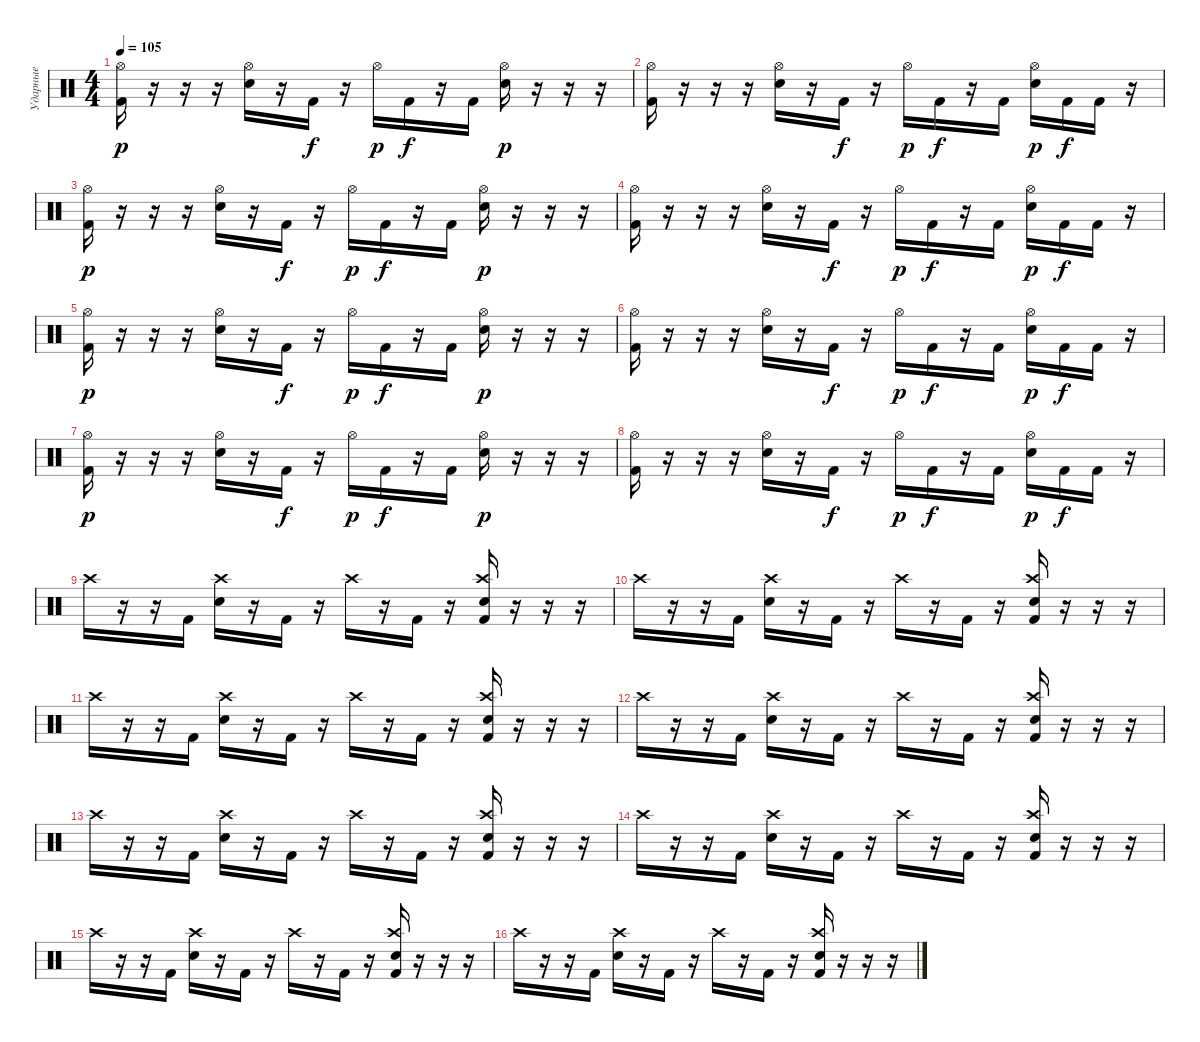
\track ("Ударные" "Ударные") {instrument percussion}
\staff {score}
\articulation defaults
\ts (4 4)
\tempo 105
\clef neutral
\ks c
("Hi-Hat (open)" "Kick (hit) 2").16{dy p} r.16 r.16 r.16 ("Hi-Hat (open)" "Electric Snare (hit)").16 r.16 "Kick (hit) 2".16{dy f} r.16 "Hi-Hat (open)".16{dy p} "Kick (hit) 2".16{dy f} r.16 "Kick (hit) 2".16 ("Hi-Hat (open)" "Electric Snare (hit)").16{dy p} r.16 r.16 r.16 |
("Hi-Hat (open)" "Kick (hit) 2").16 r.16 r.16 r.16 ("Hi-Hat (open)" "Electric Snare (hit)").16 r.16 "Kick (hit) 2".16{dy f} r.16 "Hi-Hat (open)".16{dy p} "Kick (hit) 2".16{dy f} r.16 "Kick (hit) 2".16 ("Hi-Hat (open)" "Electric Snare (hit)").16{dy p} "Kick (hit) 2".16{dy f} "Kick (hit) 2".16 r.16 |
("Hi-Hat (open)" "Kick (hit) 2").16{dy p} r.16 r.16 r.16 ("Hi-Hat (open)" "Electric Snare (hit)").16 r.16 "Kick (hit) 2".16{dy f} r.16 "Hi-Hat (open)".16{dy p} "Kick (hit) 2".16{dy f} r.16 "Kick (hit) 2".16 ("Hi-Hat (open)" "Electric Snare (hit)").16{dy p} r.16 r.16 r.16 |
("Hi-Hat (open)" "Kick (hit) 2").16 r.16 r.16 r.16 ("Hi-Hat (open)" "Electric Snare (hit)").16 r.16 "Kick (hit) 2".16{dy f} r.16 "Hi-Hat (open)".16{dy p} "Kick (hit) 2".16{dy f} r.16 "Kick (hit) 2".16 ("Hi-Hat (open)" "Electric Snare (hit)").16{dy p} "Kick (hit) 2".16{dy f} "Kick (hit) 2".16 r.16 |
("Hi-Hat (open)" "Kick (hit) 2").16{dy p} r.16 r.16 r.16 ("Hi-Hat (open)" "Electric Snare (hit)").16 r.16 "Kick (hit) 2".16{dy f} r.16 "Hi-Hat (open)".16{dy p} "Kick (hit) 2".16{dy f} r.16 "Kick (hit) 2".16 ("Hi-Hat (open)" "Electric Snare (hit)").16{dy p} r.16 r.16 r.16 |
("Hi-Hat (open)" "Kick (hit) 2").16 r.16 r.16 r.16 ("Hi-Hat (open)" "Electric Snare (hit)").16 r.16 "Kick (hit) 2".16{dy f} r.16 "Hi-Hat (open)".16{dy p} "Kick (hit) 2".16{dy f} r.16 "Kick (hit) 2".16 ("Hi-Hat (open)" "Electric Snare (hit)").16{dy p} "Kick (hit) 2".16{dy f} "Kick (hit) 2".16 r.16 |
("Hi-Hat (open)" "Kick (hit) 2").16{dy p} r.16 r.16 r.16 ("Hi-Hat (open)" "Electric Snare (hit)").16 r.16 "Kick (hit) 2".16{dy f} r.16 "Hi-Hat (open)".16{dy p} "Kick (hit) 2".16{dy f} r.16 "Kick (hit) 2".16 ("Hi-Hat (open)" "Electric Snare (hit)").16{dy p} r.16 r.16 r.16 |
("Hi-Hat (open)" "Kick (hit) 2").16 r.16 r.16 r.16 ("Hi-Hat (open)" "Electric Snare (hit)").16 r.16 "Kick (hit) 2".16{dy f} r.16 "Hi-Hat (open)".16{dy p} "Kick (hit) 2".16{dy f} r.16 "Kick (hit) 2".16 ("Hi-Hat (open)" "Electric Snare (hit)").16{dy p} "Kick (hit) 2".16{dy f} "Kick (hit) 2".16 r.16 |
"Crash high (hit)".16 r.16 r.16 "Kick (hit) 2".16 ("Crash high (hit)" "Snare (hit) 2").16 r.16 "Kick (hit) 2".16 r.16 "Crash high (hit)".16 r.16 "Kick (hit) 2".16 r.16 ("Crash high (hit)" "Snare (hit) 2" "Kick (hit) 2").16 r.16 r.16 r.16 |
"Crash high (hit)".16 r.16 r.16 "Kick (hit) 2".16 ("Crash high (hit)" "Snare (hit) 2").16 r.16 "Kick (hit) 2".16 r.16 "Crash high (hit)".16 r.16 "Kick (hit) 2".16 r.16 ("Crash high (hit)" "Snare (hit) 2" "Kick (hit) 2").16 r.16 r.16 r.16 |
"Crash high (hit)".16 r.16 r.16 "Kick (hit) 2".16 ("Crash high (hit)" "Snare (hit) 2").16 r.16 "Kick (hit) 2".16 r.16 "Crash high (hit)".16 r.16 "Kick (hit) 2".16 r.16 ("Crash high (hit)" "Snare (hit) 2" "Kick (hit) 2").16 r.16 r.16 r.16 |
"Crash high (hit)".16 r.16 r.16 "Kick (hit) 2".16 ("Crash high (hit)" "Snare (hit) 2").16 r.16 "Kick (hit) 2".16 r.16 "Crash high (hit)".16 r.16 "Kick (hit) 2".16 r.16 ("Crash high (hit)" "Snare (hit) 2" "Kick (hit) 2").16 r.16 r.16 r.16 |
"Crash high (hit)".16 r.16 r.16 "Kick (hit) 2".16 ("Crash high (hit)" "Snare (hit) 2").16 r.16 "Kick (hit) 2".16 r.16 "Crash high (hit)".16 r.16 "Kick (hit) 2".16 r.16 ("Crash high (hit)" "Snare (hit) 2" "Kick (hit) 2").16 r.16 r.16 r.16 |
"Crash high (hit)".16 r.16 r.16 "Kick (hit) 2".16 ("Crash high (hit)" "Snare (hit) 2").16 r.16 "Kick (hit) 2".16 r.16 "Crash high (hit)".16 r.16 "Kick (hit) 2".16 r.16 ("Crash high (hit)" "Snare (hit) 2" "Kick (hit) 2").16 r.16 r.16 r.16 |
"Crash high (hit)".16 r.16 r.16 "Kick (hit) 2".16 ("Crash high (hit)" "Snare (hit) 2").16 r.16 "Kick (hit) 2".16 r.16 "Crash high (hit)".16 r.16 "Kick (hit) 2".16 r.16 ("Crash high (hit)" "Snare (hit) 2" "Kick (hit) 2").16 r.16 r.16 r.16 |
"Crash high (hit)".16 r.16 r.16 "Kick (hit) 2".16 ("Crash high (hit)" "Snare (hit) 2").16 r.16 "Kick (hit) 2".16 r.16 "Crash high (hit)".16 r.16 "Kick (hit) 2".16 r.16 ("Crash high (hit)" "Snare (hit) 2" "Kick (hit) 2").16 r.16 r.16 r.16
